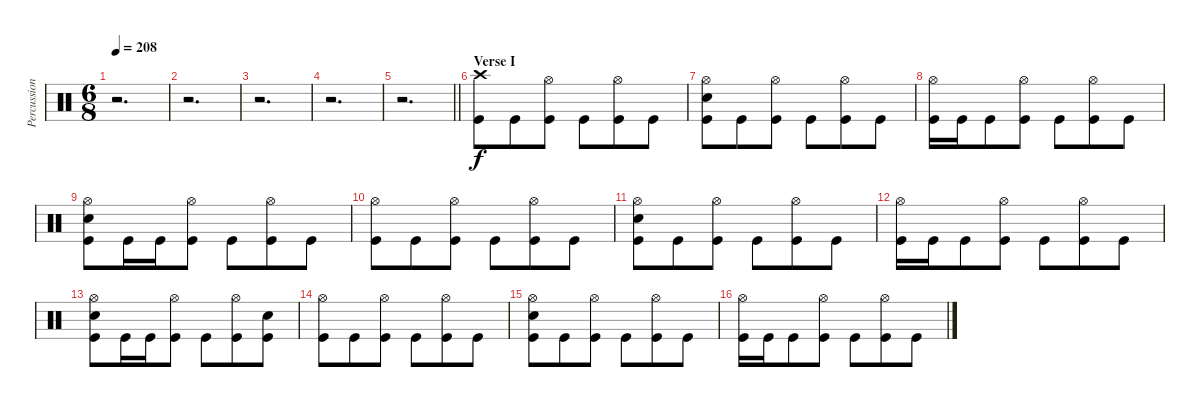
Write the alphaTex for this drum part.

\track ("Percussion" "Percussion") {instrument percussion}
\staff {score}
\articulation defaults
\ts (6 8)
\tempo 208
\clef neutral
\ks c
r.2{d dy f} |
r.2{d} |
r.2{d} |
r.2{d} |
\barLineRight lightlight
r.2{d} |
\section ("" "Verse I")
("Crash high (hit)" "Kick (hit)").8 "Kick (hit)".8 ("Hi-Hat (open)" "Kick (hit)").8 "Kick (hit)".8 ("Hi-Hat (open)" "Kick (hit)").8 "Kick (hit)".8 |
("Hi-Hat (open)" "Electric Snare (hit)" "Kick (hit)").8 "Kick (hit)".8 ("Hi-Hat (open)" "Kick (hit)").8 "Kick (hit)".8 ("Hi-Hat (open)" "Kick (hit)").8 "Kick (hit)".8 |
("Hi-Hat (open)" "Kick (hit)").16 "Kick (hit)".16 "Kick (hit)".8 ("Hi-Hat (open)" "Kick (hit)").8 "Kick (hit)".8 ("Hi-Hat (open)" "Kick (hit)").8 "Kick (hit)".8 |
("Hi-Hat (open)" "Electric Snare (hit)" "Kick (hit)").8 "Kick (hit)".16 "Kick (hit)".16 ("Hi-Hat (open)" "Kick (hit)").8 "Kick (hit)".8 ("Hi-Hat (open)" "Kick (hit)").8 "Kick (hit)".8 |
("Hi-Hat (open)" "Kick (hit)").8 "Kick (hit)".8 ("Hi-Hat (open)" "Kick (hit)").8 "Kick (hit)".8 ("Hi-Hat (open)" "Kick (hit)").8 "Kick (hit)".8 |
("Hi-Hat (open)" "Electric Snare (hit)" "Kick (hit)").8 "Kick (hit)".8 ("Hi-Hat (open)" "Kick (hit)").8 "Kick (hit)".8 ("Hi-Hat (open)" "Kick (hit)").8 "Kick (hit)".8 |
("Hi-Hat (open)" "Kick (hit)").16 "Kick (hit)".16 "Kick (hit)".8 ("Hi-Hat (open)" "Kick (hit)").8 "Kick (hit)".8 ("Hi-Hat (open)" "Kick (hit)").8 "Kick (hit)".8 |
("Hi-Hat (open)" "Electric Snare (hit)" "Kick (hit)").8 "Kick (hit)".16 "Kick (hit)".16 ("Hi-Hat (open)" "Kick (hit)").8 "Kick (hit)".8 ("Hi-Hat (open)" "Kick (hit)").8 ("Electric Snare (hit)" "Kick (hit)").8 |
("Hi-Hat (open)" "Kick (hit)").8 "Kick (hit)".8 ("Hi-Hat (open)" "Kick (hit)").8 "Kick (hit)".8 ("Hi-Hat (open)" "Kick (hit)").8 "Kick (hit)".8 |
("Hi-Hat (open)" "Electric Snare (hit)" "Kick (hit)").8 "Kick (hit)".8 ("Hi-Hat (open)" "Kick (hit)").8 "Kick (hit)".8 ("Hi-Hat (open)" "Kick (hit)").8 "Kick (hit)".8 |
("Hi-Hat (open)" "Kick (hit)").16 "Kick (hit)".16 "Kick (hit)".8 ("Hi-Hat (open)" "Kick (hit)").8 "Kick (hit)".8 ("Hi-Hat (open)" "Kick (hit)").8 "Kick (hit)".8
